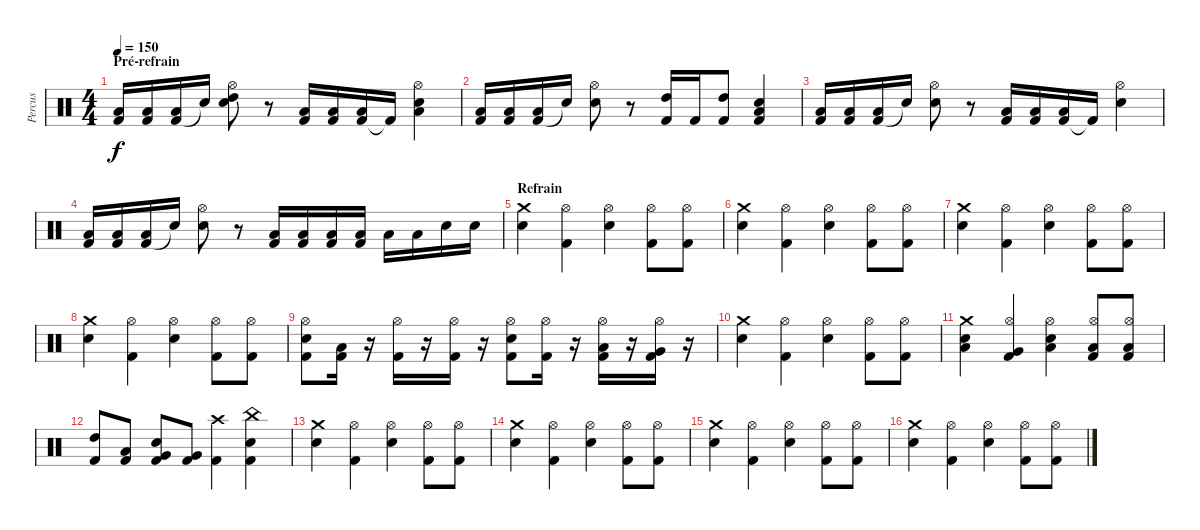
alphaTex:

\track ("Percus" "Percus") {instrument percussion}
\staff {score}
\articulation defaults
\ts (4 4)
\section ("" "Pré-refrain")
\tempo 150
\clef neutral
\ks c
("Kick (hit) 2" "Low Tom (hit)").16{dy f} ("Kick (hit) 2" "Low Tom (hit)").16 ("Kick (hit) 2" "Low Tom (hit)").16 "Snare (hit)"{t}.16 ("Hi-Hat (open)" "Electric Snare (hit)" "High Tom (hit)").8 r.8 ("Kick (hit) 2" "Low Tom (hit)").16 ("Kick (hit) 2" "Low Tom (hit)").16 ("Kick (hit) 2" "Low Tom (hit)").16 "Kick (hit) 2"{t}.16 ("Hi-Hat (open)" "Low Tom (hit)" "Electric Snare (hit)").4 |
("Kick (hit) 2" "Low Tom (hit)").16 ("Kick (hit) 2" "Low Tom (hit)").16 ("Kick (hit) 2" "Low Tom (hit)").16 "Snare (hit)"{t}.16 ("Hi-Hat (open)" "Electric Snare (hit)").8 r.8 ("Kick (hit) 2" "High Tom (hit)").16 "Kick (hit) 2".16 ("Kick (hit) 2" "High Tom (hit)").8 ("Kick (hit) 2" "Electric Snare (hit)" "Low Tom (hit)").4 |
("Kick (hit) 2" "Low Tom (hit)").16 ("Kick (hit) 2" "Low Tom (hit)").16 ("Kick (hit) 2" "Low Tom (hit)").16 "Snare (hit)"{t}.16 ("Hi-Hat (open)" "Electric Snare (hit)").8 r.8 ("Kick (hit) 2" "Low Tom (hit)").16 ("Kick (hit) 2" "Low Tom (hit)").16 ("Kick (hit) 2" "Low Tom (hit)").16 "Kick (hit) 2"{t}.16 ("Hi-Hat (open)" "Electric Snare (hit)").4 |
("Kick (hit) 2" "Low Tom (hit)").16 ("Kick (hit) 2" "Low Tom (hit)").16 ("Kick (hit) 2" "Low Tom (hit)").16 "Snare (hit)"{t}.16 ("Hi-Hat (open)" "Electric Snare (hit)").8 r.8 ("Kick (hit) 2" "Low Tom (hit)").16 ("Kick (hit) 2" "Low Tom (hit)").16 ("Kick (hit) 2" "Low Tom (hit)").16 ("Kick (hit) 2" "Low Tom (hit)").16 "Low Floor Tom (hit)".16 "Low Floor Tom (hit)".16 "Electric Snare (hit)".16 "Electric Snare (hit)".16 |
\section ("" "Refrain")
("Crash medium (hit)" "Snare (hit) 2").4 ("Hi-Hat (open)" "Kick (hit) 2").4 ("Hi-Hat (open)" "Snare (hit) 2").4 ("Hi-Hat (open)" "Kick (hit) 2").8 ("Hi-Hat (open)" "Kick (hit) 2").8 |
("Crash medium (hit)" "Snare (hit) 2").4 ("Hi-Hat (open)" "Kick (hit) 2").4 ("Hi-Hat (open)" "Snare (hit) 2").4 ("Hi-Hat (open)" "Kick (hit) 2").8 ("Hi-Hat (open)" "Kick (hit) 2").8 |
("Crash medium (hit)" "Snare (hit) 2").4 ("Hi-Hat (open)" "Kick (hit) 2").4 ("Hi-Hat (open)" "Snare (hit) 2").4 ("Hi-Hat (open)" "Kick (hit) 2").8 ("Hi-Hat (open)" "Kick (hit) 2").8 |
("Crash medium (hit)" "Snare (hit) 2").4 ("Hi-Hat (open)" "Kick (hit) 2").4 ("Hi-Hat (open)" "Snare (hit) 2").4 ("Hi-Hat (open)" "Kick (hit) 2").8 ("Hi-Hat (open)" "Kick (hit) 2").8 |
("Kick (hit) 2" "Snare (hit) 2" "Hi-Hat (open)").8 ("Kick (hit) 2" "Low Tom (hit)").16 r.16 ("Kick (hit) 2" "Hi-Hat (open)").16 r.16 ("Kick (hit) 2" "Hi-Hat (open)").16 r.16 ("Snare (hit) 2" "Kick (hit) 2" "Hi-Hat (open)").8 ("Kick (hit) 2" "Hi-Hat (open)").16 r.16 ("Low Tom (hit)" "Kick (hit) 2" "Hi-Hat (open)").16 r.16 ("Very Low Tom (hit)" "Kick (hit) 2" "Hi-Hat (open)").16 r.16 |
("Crash medium (hit)" "Snare (hit) 2").4 ("Hi-Hat (open)" "Kick (hit) 2").4 ("Hi-Hat (open)" "Snare (hit) 2").4 ("Hi-Hat (open)" "Kick (hit) 2").8 ("Hi-Hat (open)" "Kick (hit) 2").8 |
("Crash medium (hit)" "Low Tom (hit)" "Snare (hit) 2").4 ("Hi-Hat (open)" "Very Low Tom (hit)" "Kick (hit) 2").4 ("Hi-Hat (open)" "Low Floor Tom (hit)" "Snare (hit) 2").4 ("Hi-Hat (open)" "Low Floor Tom (hit)" "Kick (hit) 2").8 ("Hi-Hat (open)" "Low Floor Tom (hit)" "Kick (hit) 2").8 |
("Kick (hit) 2" "High Tom (hit)").8 ("Kick (hit) 2" "Low Tom (hit)").8 ("Kick (hit) 2" "Very Low Tom (hit)" "Electric Snare (hit)").8 ("Kick (hit) 2" "Very Low Tom (hit)").8 ("Kick (hit) 2" "Crash high (hit)").4 ("Kick (hit) 2" "China (hit)" "Electric Snare (hit)").4 |
("Crash medium (hit)" "Snare (hit) 2").4 ("Hi-Hat (open)" "Kick (hit) 2").4 ("Hi-Hat (open)" "Snare (hit) 2").4 ("Hi-Hat (open)" "Kick (hit) 2").8 ("Hi-Hat (open)" "Kick (hit) 2").8 |
("Crash medium (hit)" "Snare (hit) 2").4 ("Hi-Hat (open)" "Kick (hit) 2").4 ("Hi-Hat (open)" "Snare (hit) 2").4 ("Hi-Hat (open)" "Kick (hit) 2").8 ("Hi-Hat (open)" "Kick (hit) 2").8 |
("Crash medium (hit)" "Snare (hit) 2").4 ("Hi-Hat (open)" "Kick (hit) 2").4 ("Hi-Hat (open)" "Snare (hit) 2").4 ("Hi-Hat (open)" "Kick (hit) 2").8 ("Hi-Hat (open)" "Kick (hit) 2").8 |
("Crash medium (hit)" "Snare (hit) 2").4 ("Hi-Hat (open)" "Kick (hit) 2").4 ("Hi-Hat (open)" "Snare (hit) 2").4 ("Hi-Hat (open)" "Kick (hit) 2").8 ("Hi-Hat (open)" "Kick (hit) 2").8
